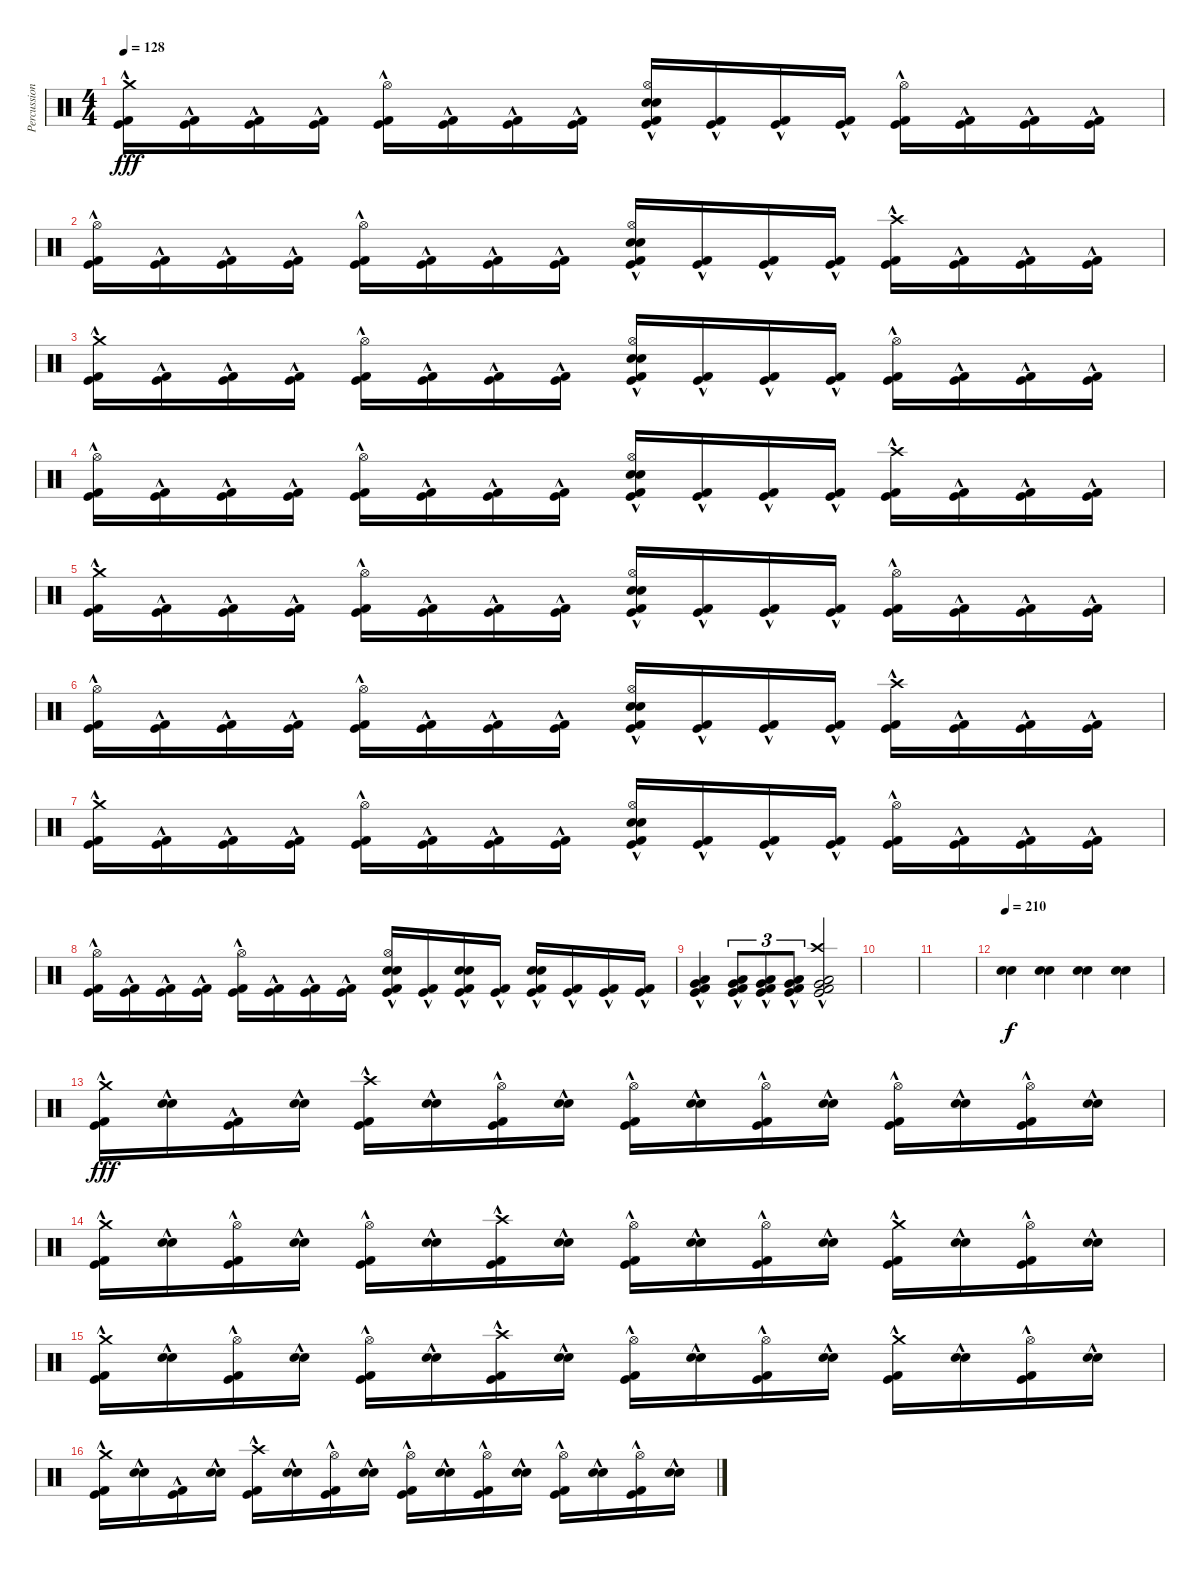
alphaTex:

\track ("Percussion" "Percussion") {instrument percussion}
\staff {score}
\articulation defaults
\ts (4 4)
\tempo 128
\clef neutral
\ks c
("Crash medium (hit)"{hac} "Kick (hit)"{hac} "Kick (hit) 2"{hac}).16{dy fff} ("Kick (hit)"{hac} "Kick (hit) 2"{hac}).16 ("Kick (hit)"{hac} "Kick (hit) 2"{hac}).16 ("Kick (hit)"{hac} "Kick (hit) 2"{hac}).16 ("Hi-Hat (open)"{hac} "Kick (hit)"{hac} "Kick (hit) 2"{hac}).16 ("Kick (hit)"{hac} "Kick (hit) 2"{hac}).16 ("Kick (hit)"{hac} "Kick (hit) 2"{hac}).16 ("Kick (hit)"{hac} "Kick (hit) 2"{hac}).16 ("Hi-Hat (open)"{hac} "Electric Snare (hit)"{hac} "Snare (hit) 2"{hac} "Kick (hit)"{hac} "Kick (hit) 2"{hac}).16 ("Kick (hit)"{hac} "Kick (hit) 2"{hac}).16 ("Kick (hit)"{hac} "Kick (hit) 2"{hac}).16 ("Kick (hit)"{hac} "Kick (hit) 2"{hac}).16 ("Hi-Hat (open)"{hac} "Kick (hit)"{hac} "Kick (hit) 2"{hac}).16 ("Kick (hit)"{hac} "Kick (hit) 2"{hac}).16 ("Kick (hit)"{hac} "Kick (hit) 2"{hac}).16 ("Kick (hit)"{hac} "Kick (hit) 2"{hac}).16 |
("Hi-Hat (open)"{hac} "Kick (hit)"{hac} "Kick (hit) 2"{hac}).16 ("Kick (hit)"{hac} "Kick (hit) 2"{hac}).16 ("Kick (hit)"{hac} "Kick (hit) 2"{hac}).16 ("Kick (hit)"{hac} "Kick (hit) 2"{hac}).16 ("Hi-Hat (open)"{hac} "Kick (hit)"{hac} "Kick (hit) 2"{hac}).16 ("Kick (hit)"{hac} "Kick (hit) 2"{hac}).16 ("Kick (hit)"{hac} "Kick (hit) 2"{hac}).16 ("Kick (hit)"{hac} "Kick (hit) 2"{hac}).16 ("Hi-Hat (open)"{hac} "Electric Snare (hit)"{hac} "Snare (hit) 2"{hac} "Kick (hit)"{hac} "Kick (hit) 2"{hac}).16 ("Kick (hit)"{hac} "Kick (hit) 2"{hac}).16 ("Kick (hit)"{hac} "Kick (hit) 2"{hac}).16 ("Kick (hit)"{hac} "Kick (hit) 2"{hac}).16 ("Crash high (hit)"{hac} "Kick (hit)"{hac} "Kick (hit) 2"{hac}).16 ("Kick (hit)"{hac} "Kick (hit) 2"{hac}).16 ("Kick (hit)"{hac} "Kick (hit) 2"{hac}).16 ("Kick (hit)"{hac} "Kick (hit) 2"{hac}).16 |
("Crash medium (hit)"{hac} "Kick (hit)"{hac} "Kick (hit) 2"{hac}).16 ("Kick (hit)"{hac} "Kick (hit) 2"{hac}).16 ("Kick (hit)"{hac} "Kick (hit) 2"{hac}).16 ("Kick (hit)"{hac} "Kick (hit) 2"{hac}).16 ("Hi-Hat (open)"{hac} "Kick (hit)"{hac} "Kick (hit) 2"{hac}).16 ("Kick (hit)"{hac} "Kick (hit) 2"{hac}).16 ("Kick (hit)"{hac} "Kick (hit) 2"{hac}).16 ("Kick (hit)"{hac} "Kick (hit) 2"{hac}).16 ("Hi-Hat (open)"{hac} "Electric Snare (hit)"{hac} "Snare (hit) 2"{hac} "Kick (hit)"{hac} "Kick (hit) 2"{hac}).16 ("Kick (hit)"{hac} "Kick (hit) 2"{hac}).16 ("Kick (hit)"{hac} "Kick (hit) 2"{hac}).16 ("Kick (hit)"{hac} "Kick (hit) 2"{hac}).16 ("Hi-Hat (open)"{hac} "Kick (hit)"{hac} "Kick (hit) 2"{hac}).16 ("Kick (hit)"{hac} "Kick (hit) 2"{hac}).16 ("Kick (hit)"{hac} "Kick (hit) 2"{hac}).16 ("Kick (hit)"{hac} "Kick (hit) 2"{hac}).16 |
("Hi-Hat (open)"{hac} "Kick (hit)"{hac} "Kick (hit) 2"{hac}).16 ("Kick (hit)"{hac} "Kick (hit) 2"{hac}).16 ("Kick (hit)"{hac} "Kick (hit) 2"{hac}).16 ("Kick (hit)"{hac} "Kick (hit) 2"{hac}).16 ("Hi-Hat (open)"{hac} "Kick (hit)"{hac} "Kick (hit) 2"{hac}).16 ("Kick (hit)"{hac} "Kick (hit) 2"{hac}).16 ("Kick (hit)"{hac} "Kick (hit) 2"{hac}).16 ("Kick (hit)"{hac} "Kick (hit) 2"{hac}).16 ("Hi-Hat (open)"{hac} "Electric Snare (hit)"{hac} "Snare (hit) 2"{hac} "Kick (hit)"{hac} "Kick (hit) 2"{hac}).16 ("Kick (hit)"{hac} "Kick (hit) 2"{hac}).16 ("Kick (hit)"{hac} "Kick (hit) 2"{hac}).16 ("Kick (hit)"{hac} "Kick (hit) 2"{hac}).16 ("Crash high (hit)"{hac} "Kick (hit)"{hac} "Kick (hit) 2"{hac}).16 ("Kick (hit)"{hac} "Kick (hit) 2"{hac}).16 ("Kick (hit)"{hac} "Kick (hit) 2"{hac}).16 ("Kick (hit)"{hac} "Kick (hit) 2"{hac}).16 |
("Crash medium (hit)"{hac} "Kick (hit)"{hac} "Kick (hit) 2"{hac}).16 ("Kick (hit)"{hac} "Kick (hit) 2"{hac}).16 ("Kick (hit)"{hac} "Kick (hit) 2"{hac}).16 ("Kick (hit)"{hac} "Kick (hit) 2"{hac}).16 ("Hi-Hat (open)"{hac} "Kick (hit)"{hac} "Kick (hit) 2"{hac}).16 ("Kick (hit)"{hac} "Kick (hit) 2"{hac}).16 ("Kick (hit)"{hac} "Kick (hit) 2"{hac}).16 ("Kick (hit)"{hac} "Kick (hit) 2"{hac}).16 ("Hi-Hat (open)"{hac} "Electric Snare (hit)"{hac} "Snare (hit) 2"{hac} "Kick (hit)"{hac} "Kick (hit) 2"{hac}).16 ("Kick (hit)"{hac} "Kick (hit) 2"{hac}).16 ("Kick (hit)"{hac} "Kick (hit) 2"{hac}).16 ("Kick (hit)"{hac} "Kick (hit) 2"{hac}).16 ("Hi-Hat (open)"{hac} "Kick (hit)"{hac} "Kick (hit) 2"{hac}).16 ("Kick (hit)"{hac} "Kick (hit) 2"{hac}).16 ("Kick (hit)"{hac} "Kick (hit) 2"{hac}).16 ("Kick (hit)"{hac} "Kick (hit) 2"{hac}).16 |
("Hi-Hat (open)"{hac} "Kick (hit)"{hac} "Kick (hit) 2"{hac}).16 ("Kick (hit)"{hac} "Kick (hit) 2"{hac}).16 ("Kick (hit)"{hac} "Kick (hit) 2"{hac}).16 ("Kick (hit)"{hac} "Kick (hit) 2"{hac}).16 ("Hi-Hat (open)"{hac} "Kick (hit)"{hac} "Kick (hit) 2"{hac}).16 ("Kick (hit)"{hac} "Kick (hit) 2"{hac}).16 ("Kick (hit)"{hac} "Kick (hit) 2"{hac}).16 ("Kick (hit)"{hac} "Kick (hit) 2"{hac}).16 ("Hi-Hat (open)"{hac} "Electric Snare (hit)"{hac} "Snare (hit) 2"{hac} "Kick (hit)"{hac} "Kick (hit) 2"{hac}).16 ("Kick (hit)"{hac} "Kick (hit) 2"{hac}).16 ("Kick (hit)"{hac} "Kick (hit) 2"{hac}).16 ("Kick (hit)"{hac} "Kick (hit) 2"{hac}).16 ("Crash high (hit)"{hac} "Kick (hit)"{hac} "Kick (hit) 2"{hac}).16 ("Kick (hit)"{hac} "Kick (hit) 2"{hac}).16 ("Kick (hit)"{hac} "Kick (hit) 2"{hac}).16 ("Kick (hit)"{hac} "Kick (hit) 2"{hac}).16 |
("Crash medium (hit)"{hac} "Kick (hit)"{hac} "Kick (hit) 2"{hac}).16 ("Kick (hit)"{hac} "Kick (hit) 2"{hac}).16 ("Kick (hit)"{hac} "Kick (hit) 2"{hac}).16 ("Kick (hit)"{hac} "Kick (hit) 2"{hac}).16 ("Hi-Hat (open)"{hac} "Kick (hit)"{hac} "Kick (hit) 2"{hac}).16 ("Kick (hit)"{hac} "Kick (hit) 2"{hac}).16 ("Kick (hit)"{hac} "Kick (hit) 2"{hac}).16 ("Kick (hit)"{hac} "Kick (hit) 2"{hac}).16 ("Hi-Hat (open)"{hac} "Electric Snare (hit)"{hac} "Snare (hit) 2"{hac} "Kick (hit)"{hac} "Kick (hit) 2"{hac}).16 ("Kick (hit)"{hac} "Kick (hit) 2"{hac}).16 ("Kick (hit)"{hac} "Kick (hit) 2"{hac}).16 ("Kick (hit)"{hac} "Kick (hit) 2"{hac}).16 ("Hi-Hat (open)"{hac} "Kick (hit)"{hac} "Kick (hit) 2"{hac}).16 ("Kick (hit)"{hac} "Kick (hit) 2"{hac}).16 ("Kick (hit)"{hac} "Kick (hit) 2"{hac}).16 ("Kick (hit)"{hac} "Kick (hit) 2"{hac}).16 |
("Hi-Hat (open)"{hac} "Kick (hit)"{hac} "Kick (hit) 2"{hac}).16 ("Kick (hit)"{hac} "Kick (hit) 2"{hac}).16 ("Kick (hit)"{hac} "Kick (hit) 2"{hac}).16 ("Kick (hit)"{hac} "Kick (hit) 2"{hac}).16 ("Hi-Hat (open)"{hac} "Kick (hit)"{hac} "Kick (hit) 2"{hac}).16 ("Kick (hit)"{hac} "Kick (hit) 2"{hac}).16 ("Kick (hit)"{hac} "Kick (hit) 2"{hac}).16 ("Kick (hit)"{hac} "Kick (hit) 2"{hac}).16 ("Hi-Hat (open)"{hac} "Electric Snare (hit)"{hac} "Snare (hit) 2"{hac} "Kick (hit)"{hac} "Kick (hit) 2"{hac}).16 ("Kick (hit)"{hac} "Kick (hit) 2"{hac}).16 ("Electric Snare (hit)"{hac} "Snare (hit) 2"{hac} "Kick (hit)"{hac} "Kick (hit) 2"{hac}).16 ("Kick (hit)"{hac} "Kick (hit) 2"{hac}).16 ("Electric Snare (hit)"{hac} "Snare (hit) 2"{hac} "Kick (hit)"{hac} "Kick (hit) 2"{hac}).16 ("Kick (hit)"{hac} "Kick (hit) 2"{hac}).16 ("Kick (hit)"{hac} "Kick (hit) 2"{hac}).16 ("Kick (hit)"{hac} "Kick (hit) 2"{hac}).16 |
("Very Low Tom (hit)"{hac} "Low Tom (hit)"{hac} "Kick (hit)"{hac} "Kick (hit) 2"{hac}).4 ("Very Low Tom (hit)"{hac} "Low Tom (hit)"{hac} "Kick (hit)"{hac} "Kick (hit) 2"{hac}).8{tu (3 2)} ("Very Low Tom (hit)"{hac} "Low Tom (hit)"{hac} "Kick (hit)"{hac} "Kick (hit) 2"{hac}).8{tu (3 2)} ("Very Low Tom (hit)"{hac} "Low Tom (hit)"{hac} "Kick (hit)"{hac} "Kick (hit) 2"{hac}).8{tu (3 2)} ("Crash high (hit)"{hac} "Very Low Tom (hit)"{hac} "Low Tom (hit)"{hac} "Kick (hit)"{hac} "Kick (hit) 2"{hac}).2 |
|
|
\tempo 210
("Snare (hit) 2" "Electric Snare (hit)").4{dy f} ("Snare (hit) 2" "Electric Snare (hit)").4 ("Snare (hit) 2" "Electric Snare (hit)").4 ("Snare (hit) 2" "Electric Snare (hit)").4 |
("Crash medium (hit)"{hac} "Kick (hit)"{hac} "Kick (hit) 2"{hac}).16{dy fff} ("Electric Snare (hit)"{hac} "Snare (hit) 2"{hac}).16 ("Kick (hit)"{hac} "Kick (hit) 2"{hac}).16 ("Electric Snare (hit)"{hac} "Snare (hit) 2"{hac}).16 ("Crash high (hit)"{hac} "Kick (hit)"{hac} "Kick (hit) 2"{hac}).16 ("Electric Snare (hit)"{hac} "Snare (hit) 2"{hac}).16 ("Hi-Hat (open)"{hac} "Kick (hit)"{hac} "Kick (hit) 2"{hac}).16 ("Electric Snare (hit)"{hac} "Snare (hit) 2"{hac}).16 ("Hi-Hat (open)"{hac} "Kick (hit)"{hac} "Kick (hit) 2"{hac}).16 ("Electric Snare (hit)"{hac} "Snare (hit) 2"{hac}).16 ("Hi-Hat (open)"{hac} "Kick (hit)"{hac} "Kick (hit) 2"{hac}).16 ("Electric Snare (hit)"{hac} "Snare (hit) 2"{hac}).16 ("Hi-Hat (open)"{hac} "Kick (hit)"{hac} "Kick (hit) 2"{hac}).16 ("Electric Snare (hit)"{hac} "Snare (hit) 2"{hac}).16 ("Hi-Hat (open)"{hac} "Kick (hit)"{hac} "Kick (hit) 2"{hac}).16 ("Electric Snare (hit)"{hac} "Snare (hit) 2"{hac}).16 |
("Crash medium (hit)"{hac} "Kick (hit)"{hac} "Kick (hit) 2"{hac}).16 ("Electric Snare (hit)"{hac} "Snare (hit) 2"{hac}).16 ("Hi-Hat (open)" "Kick (hit)"{hac} "Kick (hit) 2"{hac}).16 ("Electric Snare (hit)"{hac} "Snare (hit) 2"{hac}).16 ("Hi-Hat (open)"{hac} "Kick (hit)"{hac} "Kick (hit) 2"{hac}).16 ("Electric Snare (hit)"{hac} "Snare (hit) 2"{hac}).16 ("Crash high (hit)"{hac} "Kick (hit)"{hac} "Kick (hit) 2"{hac}).16 ("Electric Snare (hit)"{hac} "Snare (hit) 2"{hac}).16 ("Hi-Hat (open)"{hac} "Kick (hit)"{hac} "Kick (hit) 2"{hac}).16 ("Electric Snare (hit)"{hac} "Snare (hit) 2"{hac}).16 ("Hi-Hat (open)"{hac} "Kick (hit)"{hac} "Kick (hit) 2"{hac}).16 ("Electric Snare (hit)"{hac} "Snare (hit) 2"{hac}).16 ("Crash medium (hit)"{hac} "Kick (hit)"{hac} "Kick (hit) 2"{hac}).16 ("Electric Snare (hit)"{hac} "Snare (hit) 2"{hac}).16 ("Hi-Hat (open)"{hac} "Kick (hit)"{hac} "Kick (hit) 2"{hac}).16 ("Electric Snare (hit)"{hac} "Snare (hit) 2"{hac}).16 |
("Crash medium (hit)"{hac} "Kick (hit)"{hac} "Kick (hit) 2"{hac}).16 ("Electric Snare (hit)"{hac} "Snare (hit) 2"{hac}).16 ("Hi-Hat (open)" "Kick (hit)"{hac} "Kick (hit) 2"{hac}).16 ("Electric Snare (hit)"{hac} "Snare (hit) 2"{hac}).16 ("Hi-Hat (open)"{hac} "Kick (hit)"{hac} "Kick (hit) 2"{hac}).16 ("Electric Snare (hit)"{hac} "Snare (hit) 2"{hac}).16 ("Crash high (hit)"{hac} "Kick (hit)"{hac} "Kick (hit) 2"{hac}).16 ("Electric Snare (hit)"{hac} "Snare (hit) 2"{hac}).16 ("Hi-Hat (open)"{hac} "Kick (hit)"{hac} "Kick (hit) 2"{hac}).16 ("Electric Snare (hit)"{hac} "Snare (hit) 2"{hac}).16 ("Hi-Hat (open)"{hac} "Kick (hit)"{hac} "Kick (hit) 2"{hac}).16 ("Electric Snare (hit)"{hac} "Snare (hit) 2"{hac}).16 ("Crash medium (hit)"{hac} "Kick (hit)"{hac} "Kick (hit) 2"{hac}).16 ("Electric Snare (hit)"{hac} "Snare (hit) 2"{hac}).16 ("Hi-Hat (open)"{hac} "Kick (hit)"{hac} "Kick (hit) 2"{hac}).16 ("Electric Snare (hit)"{hac} "Snare (hit) 2"{hac}).16 |
("Crash medium (hit)"{hac} "Kick (hit)"{hac} "Kick (hit) 2"{hac}).16 ("Electric Snare (hit)"{hac} "Snare (hit) 2"{hac}).16 ("Kick (hit)"{hac} "Kick (hit) 2"{hac}).16 ("Electric Snare (hit)"{hac} "Snare (hit) 2"{hac}).16 ("Crash high (hit)"{hac} "Kick (hit)"{hac} "Kick (hit) 2"{hac}).16 ("Electric Snare (hit)"{hac} "Snare (hit) 2"{hac}).16 ("Hi-Hat (open)"{hac} "Kick (hit)"{hac} "Kick (hit) 2"{hac}).16 ("Electric Snare (hit)"{hac} "Snare (hit) 2"{hac}).16 ("Hi-Hat (open)"{hac} "Kick (hit)"{hac} "Kick (hit) 2"{hac}).16 ("Electric Snare (hit)"{hac} "Snare (hit) 2"{hac}).16 ("Hi-Hat (open)"{hac} "Kick (hit)"{hac} "Kick (hit) 2"{hac}).16 ("Electric Snare (hit)"{hac} "Snare (hit) 2"{hac}).16 ("Hi-Hat (open)"{hac} "Kick (hit)"{hac} "Kick (hit) 2"{hac}).16 ("Electric Snare (hit)"{hac} "Snare (hit) 2"{hac}).16 ("Hi-Hat (open)"{hac} "Kick (hit)"{hac} "Kick (hit) 2"{hac}).16 ("Electric Snare (hit)"{hac} "Snare (hit) 2"{hac}).16
